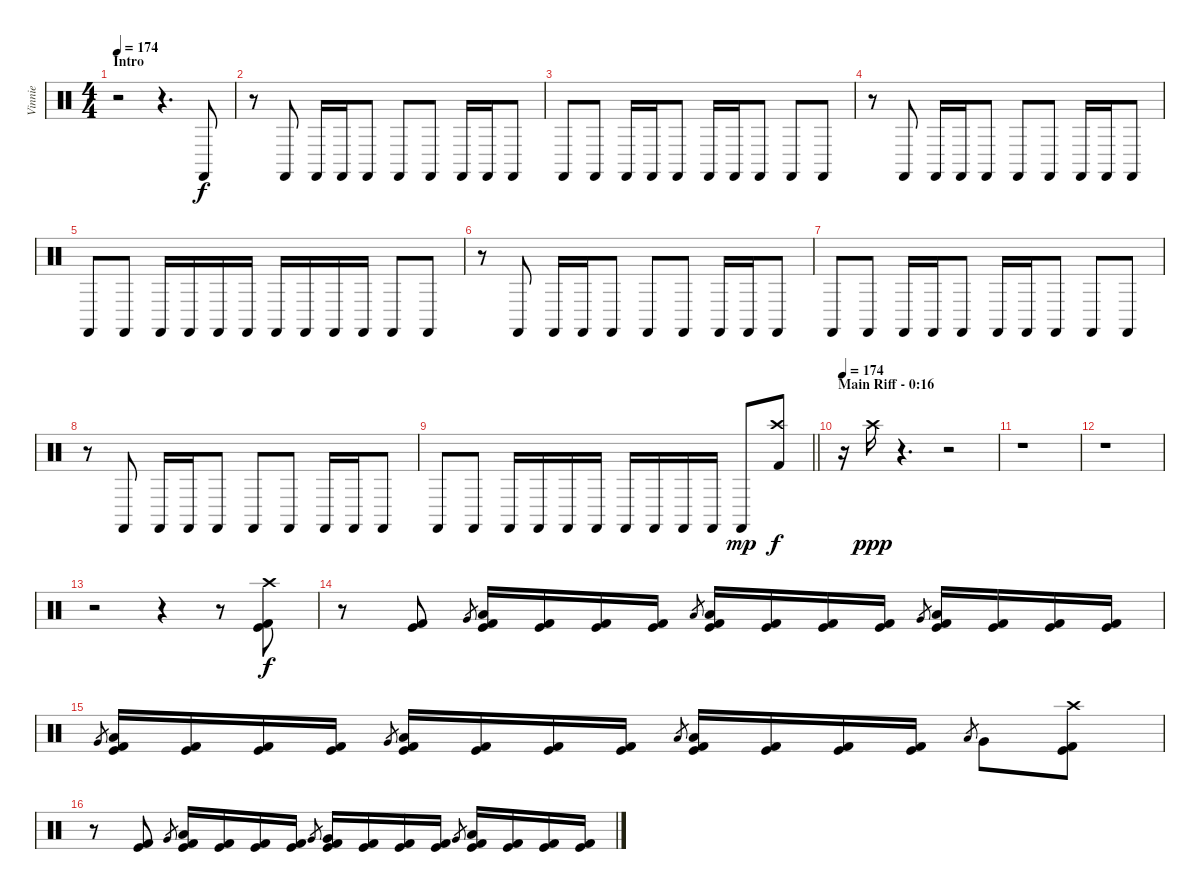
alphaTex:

\track ("Vinnie" "Vinnie") {instrument percussion}
\staff {score}
\articulation defaults
\ts (4 4)
\section ("" "Intro")
\tempo 174
\clef neutral
\ks c
r.2{dy f} r.4{d} "Castanets (hit)".8{volume 8} |
r.8 "Castanets (hit)".8 "Castanets (hit)".16 "Castanets (hit)".16 "Castanets (hit)".8 "Castanets (hit)".8 "Castanets (hit)".8 "Castanets (hit)".16 "Castanets (hit)".16 "Castanets (hit)".8 |
"Castanets (hit)".8 "Castanets (hit)".8 "Castanets (hit)".16 "Castanets (hit)".16 "Castanets (hit)".8 "Castanets (hit)".16 "Castanets (hit)".16 "Castanets (hit)".8 "Castanets (hit)".8 "Castanets (hit)".8 |
r.8 "Castanets (hit)".8 "Castanets (hit)".16 "Castanets (hit)".16 "Castanets (hit)".8 "Castanets (hit)".8 "Castanets (hit)".8 "Castanets (hit)".16 "Castanets (hit)".16 "Castanets (hit)".8 |
"Castanets (hit)".8 "Castanets (hit)".8 "Castanets (hit)".16 "Castanets (hit)".16 "Castanets (hit)".16 "Castanets (hit)".16 "Castanets (hit)".16 "Castanets (hit)".16 "Castanets (hit)".16 "Castanets (hit)".16 "Castanets (hit)".8 "Castanets (hit)".8 |
r.8 "Castanets (hit)".8 "Castanets (hit)".16 "Castanets (hit)".16 "Castanets (hit)".8 "Castanets (hit)".8 "Castanets (hit)".8 "Castanets (hit)".16 "Castanets (hit)".16 "Castanets (hit)".8 |
"Castanets (hit)".8 "Castanets (hit)".8 "Castanets (hit)".16 "Castanets (hit)".16 "Castanets (hit)".8 "Castanets (hit)".16 "Castanets (hit)".16 "Castanets (hit)".8 "Castanets (hit)".8 "Castanets (hit)".8 |
r.8 "Castanets (hit)".8 "Castanets (hit)".16 "Castanets (hit)".16 "Castanets (hit)".8 "Castanets (hit)".8 "Castanets (hit)".8 "Castanets (hit)".16 "Castanets (hit)".16 "Castanets (hit)".8 |
\barLineRight lightlight "Castanets (hit)".8 "Castanets (hit)".8 "Castanets (hit)".16 "Castanets (hit)".16 "Castanets (hit)".16 "Castanets (hit)".16 "Castanets (hit)".16 "Castanets (hit)".16 "Castanets (hit)".16 "Castanets (hit)".16 "Castanets (hit)".8{dy mp volume 16}
("Crash high (hit)" "Kick (hit) 2").8{dy f} |
\section ("" "Main Riff - 0:16")
\tempo 174
r.16 "Crash high (hit)".16{dy ppp} r.4{d} r.2 |
r.1 |
r.1 |
r.2 r.4 r.8 ("Crash high (hit)" "Kick (hit)" "Kick (hit) 2").8{dy f volume 16} |
r.8 ("Kick (hit)" "Kick (hit) 2").8 "Very Low Tom (hit)".8{gr} ("Low Tom (hit)" "Kick (hit)" "Kick (hit) 2").16 ("Kick (hit)" "Kick (hit) 2").16 ("Kick (hit)" "Kick (hit) 2").16 ("Kick (hit)" "Kick (hit) 2").16 "Low Tom (hit)".8{gr} ("Low Tom (hit)" "Kick (hit)" "Kick (hit) 2").16 ("Kick (hit)" "Kick (hit) 2").16 ("Kick (hit)" "Kick (hit) 2").16 ("Kick (hit)" "Kick (hit) 2").16 "Very Low Tom (hit)".8{gr} ("Low Floor Tom (hit)" "Kick (hit)" "Kick (hit) 2").16 ("Kick (hit)" "Kick (hit) 2").16 ("Kick (hit)" "Kick (hit) 2").16 ("Kick (hit)" "Kick (hit) 2").16 |
"Very Low Tom (hit)".8{gr} ("Low Tom (hit)" "Kick (hit)" "Kick (hit) 2").16 ("Kick (hit)" "Kick (hit) 2").16 ("Kick (hit)" "Kick (hit) 2").16 ("Kick (hit)" "Kick (hit) 2").16 "Very Low Tom (hit)".8{gr} ("Low Tom (hit)" "Kick (hit)" "Kick (hit) 2").16 ("Kick (hit)" "Kick (hit) 2").16 ("Kick (hit)" "Kick (hit) 2").16 ("Kick (hit)" "Kick (hit) 2").16 "Low Tom (hit)".8{gr} ("Low Floor Tom (hit)" "Kick (hit)" "Kick (hit) 2").16 ("Kick (hit)" "Kick (hit) 2").16 ("Kick (hit)" "Kick (hit) 2").16 ("Kick (hit)" "Kick (hit) 2").16 "Low Tom (hit)".8{gr} "Very Low Tom (hit)".8 ("Crash high (hit)" "Kick (hit)" "Kick (hit) 2").8 |
r.8 ("Kick (hit)" "Kick (hit) 2").8 "Very Low Tom (hit)".8{gr} ("Low Tom (hit)" "Kick (hit)" "Kick (hit) 2").16 ("Kick (hit)" "Kick (hit) 2").16 ("Kick (hit)" "Kick (hit) 2").16 ("Kick (hit)" "Kick (hit) 2").16 "Very Low Tom (hit)".8{gr} ("Very Low Tom (hit)" "Kick (hit)" "Kick (hit) 2").16 ("Kick (hit)" "Kick (hit) 2").16 ("Kick (hit)" "Kick (hit) 2").16 ("Kick (hit)" "Kick (hit) 2").16 "Very Low Tom (hit)".8{gr} ("Low Tom (hit)" "Kick (hit)" "Kick (hit) 2").16 ("Kick (hit)" "Kick (hit) 2").16 ("Kick (hit)" "Kick (hit) 2").16 ("Kick (hit)" "Kick (hit) 2").16
